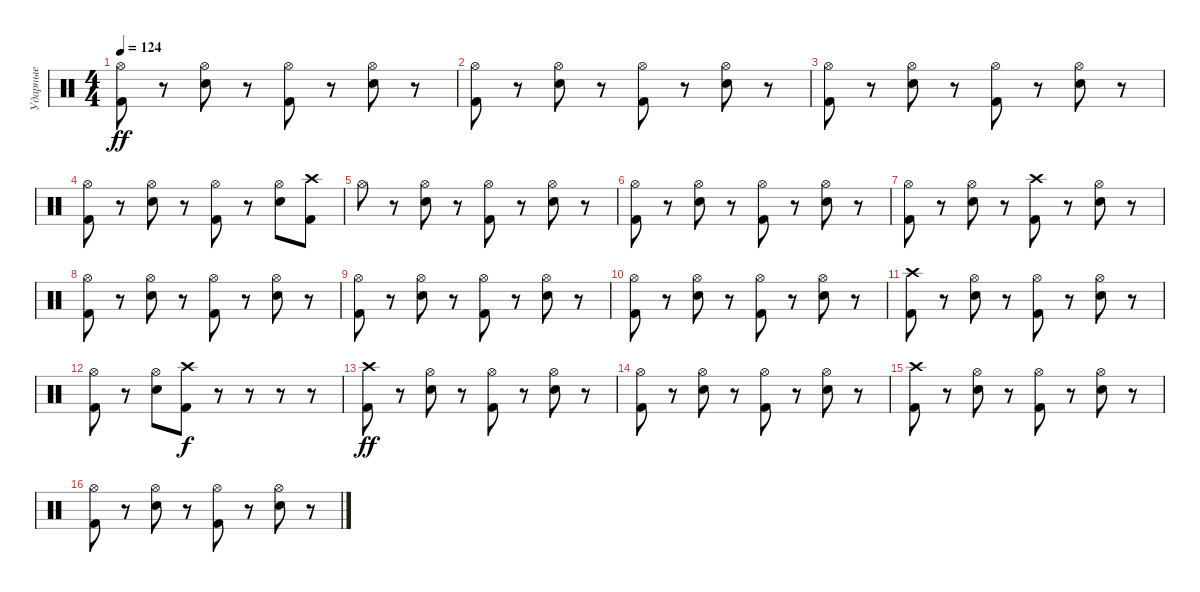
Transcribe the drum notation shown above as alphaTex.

\track ("Ударные" "Ударные") {instrument percussion}
\staff {score}
\articulation defaults
\ts (4 4)
\tempo 124
\clef neutral
\ks c
("Hi-Hat (open)" "Kick (hit) 2").8{dy ff} r.8 ("Hi-Hat (open)" "Electric Snare (hit)").8 r.8 ("Hi-Hat (open)" "Kick (hit) 2").8 r.8 ("Hi-Hat (open)" "Electric Snare (hit)").8 r.8 |
("Hi-Hat (open)" "Kick (hit) 2").8 r.8 ("Hi-Hat (open)" "Electric Snare (hit)").8 r.8 ("Hi-Hat (open)" "Kick (hit) 2").8 r.8 ("Hi-Hat (open)" "Electric Snare (hit)").8 r.8 |
("Hi-Hat (open)" "Kick (hit) 2").8 r.8 ("Hi-Hat (open)" "Electric Snare (hit)").8 r.8 ("Hi-Hat (open)" "Kick (hit) 2").8 r.8 ("Hi-Hat (open)" "Electric Snare (hit)").8 r.8 |
("Hi-Hat (open)" "Kick (hit) 2").8 r.8 ("Hi-Hat (open)" "Electric Snare (hit)").8 r.8 ("Hi-Hat (open)" "Kick (hit) 2").8 r.8 ("Hi-Hat (open)" "Electric Snare (hit)").8 ("Crash high (hit)" "Kick (hit) 2").8 |
"Hi-Hat (open)".8 r.8 ("Hi-Hat (open)" "Electric Snare (hit)").8 r.8 ("Hi-Hat (open)" "Kick (hit) 2").8 r.8 ("Hi-Hat (open)" "Electric Snare (hit)").8 r.8 |
("Hi-Hat (open)" "Kick (hit) 2").8 r.8 ("Hi-Hat (open)" "Electric Snare (hit)").8 r.8 ("Hi-Hat (open)" "Kick (hit) 2").8 r.8 ("Hi-Hat (open)" "Electric Snare (hit)").8 r.8 |
("Hi-Hat (open)" "Kick (hit) 2").8 r.8 ("Hi-Hat (open)" "Electric Snare (hit)").8 r.8 ("Crash high (hit)" "Kick (hit) 2").8 r.8 ("Hi-Hat (open)" "Electric Snare (hit)").8 r.8 |
("Hi-Hat (open)" "Kick (hit) 2").8 r.8 ("Hi-Hat (open)" "Electric Snare (hit)").8 r.8 ("Hi-Hat (open)" "Kick (hit) 2").8 r.8 ("Hi-Hat (open)" "Electric Snare (hit)").8 r.8 |
("Hi-Hat (open)" "Kick (hit) 2").8 r.8 ("Hi-Hat (open)" "Electric Snare (hit)").8 r.8 ("Hi-Hat (open)" "Kick (hit) 2").8 r.8 ("Hi-Hat (open)" "Electric Snare (hit)").8 r.8 |
("Hi-Hat (open)" "Kick (hit) 2").8 r.8 ("Hi-Hat (open)" "Electric Snare (hit)").8 r.8 ("Hi-Hat (open)" "Kick (hit) 2").8 r.8 ("Hi-Hat (open)" "Electric Snare (hit)").8 r.8 |
("Crash high (hit)" "Kick (hit) 2").8 r.8 ("Hi-Hat (open)" "Electric Snare (hit)").8 r.8 ("Hi-Hat (open)" "Kick (hit) 2").8 r.8 ("Hi-Hat (open)" "Electric Snare (hit)").8 r.8 |
("Hi-Hat (open)" "Kick (hit) 2").8 r.8 ("Hi-Hat (open)" "Electric Snare (hit)").8 ("Crash high (hit)" "Kick (hit) 2").8{dy f} r.8 r.8 r.8 r.8 |
("Crash high (hit)" "Kick (hit) 2").8{dy ff} r.8 ("Hi-Hat (open)" "Electric Snare (hit)").8 r.8 ("Hi-Hat (open)" "Kick (hit) 2").8 r.8 ("Hi-Hat (open)" "Electric Snare (hit)").8 r.8 |
("Hi-Hat (open)" "Kick (hit) 2").8 r.8 ("Hi-Hat (open)" "Electric Snare (hit)").8 r.8 ("Hi-Hat (open)" "Kick (hit) 2").8 r.8 ("Hi-Hat (open)" "Electric Snare (hit)").8 r.8 |
("Crash high (hit)" "Kick (hit) 2").8 r.8 ("Hi-Hat (open)" "Electric Snare (hit)").8 r.8 ("Hi-Hat (open)" "Kick (hit) 2").8 r.8 ("Hi-Hat (open)" "Electric Snare (hit)").8 r.8 |
("Hi-Hat (open)" "Kick (hit) 2").8 r.8 ("Hi-Hat (open)" "Electric Snare (hit)").8 r.8 ("Hi-Hat (open)" "Kick (hit) 2").8 r.8 ("Hi-Hat (open)" "Electric Snare (hit)").8 r.8
